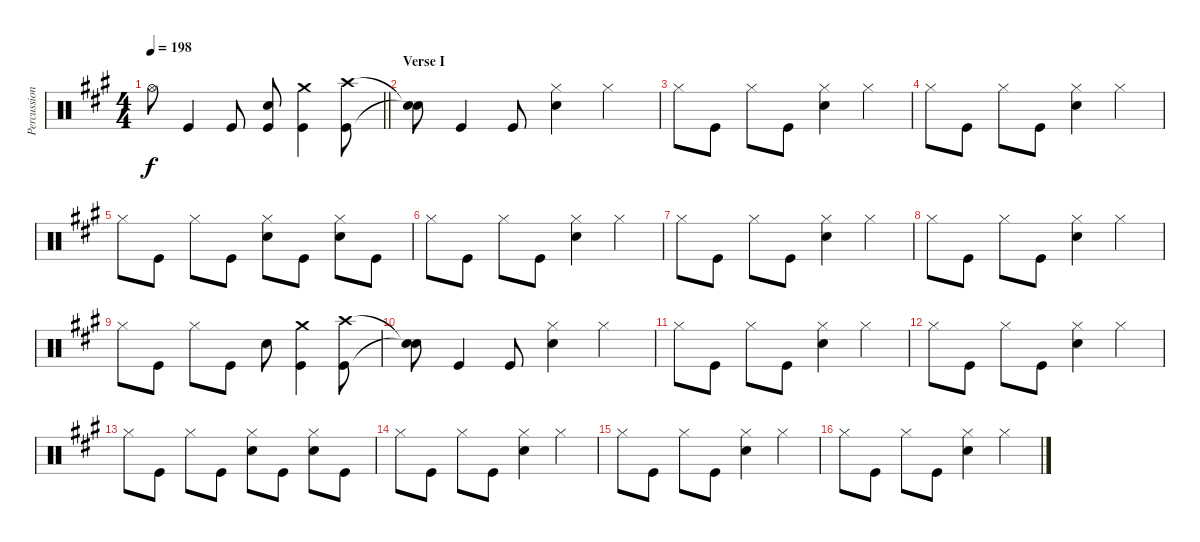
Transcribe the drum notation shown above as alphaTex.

\track ("Percussion" "Percussion") {instrument percussion}
\staff {score}
\articulation defaults
\ts (4 4)
\tempo 198
\clef neutral
\barLineRight lightlight
\ks a "Hi-Hat (open)".8{dy f} "Kick (hit)".4 "Kick (hit)".8
("Electric Snare (hit)" "Kick (hit)").8 ("Crash medium (hit)" "Kick (hit)").4 ("Crash high (hit)" "Kick (hit)").8 |
\section ("" "Verse I")
("Snare (hit)"{t} "Snare (hit)"{t}).8 "Kick (hit)".4 "Kick (hit)".8 ("Hi-Hat (closed)" "Electric Snare (hit)").4 "Hi-Hat (closed)".4 |
"Hi-Hat (closed)".8 "Kick (hit)".8 "Hi-Hat (closed)".8 "Kick (hit)".8 ("Hi-Hat (closed)" "Electric Snare (hit)").4 "Hi-Hat (closed)".4 |
"Hi-Hat (closed)".8 "Kick (hit)".8 "Hi-Hat (closed)".8 "Kick (hit)".8 ("Hi-Hat (closed)" "Electric Snare (hit)").4 "Hi-Hat (closed)".4 |
"Hi-Hat (closed)".8 "Kick (hit)".8 "Hi-Hat (closed)".8 "Kick (hit)".8 ("Hi-Hat (closed)" "Electric Snare (hit)").8 "Kick (hit)".8 ("Hi-Hat (closed)" "Electric Snare (hit)").8 "Kick (hit)".8 |
"Hi-Hat (closed)".8 "Kick (hit)".8 "Hi-Hat (closed)".8 "Kick (hit)".8 ("Hi-Hat (closed)" "Electric Snare (hit)").4 "Hi-Hat (closed)".4 |
"Hi-Hat (closed)".8 "Kick (hit)".8 "Hi-Hat (closed)".8 "Kick (hit)".8 ("Hi-Hat (closed)" "Electric Snare (hit)").4 "Hi-Hat (closed)".4 |
"Hi-Hat (closed)".8 "Kick (hit)".8 "Hi-Hat (closed)".8 "Kick (hit)".8 ("Hi-Hat (closed)" "Electric Snare (hit)").4 "Hi-Hat (closed)".4 |
"Hi-Hat (closed)".8 "Kick (hit)".8 "Hi-Hat (closed)".8 "Kick (hit)".8 "Electric Snare (hit)".8 ("Crash medium (hit)" "Kick (hit)").4 ("Crash high (hit)" "Kick (hit)").8 |
("Snare (hit)"{t} "Snare (hit)"{t}).8 "Kick (hit)".4 "Kick (hit)".8 ("Hi-Hat (closed)" "Electric Snare (hit)").4 "Hi-Hat (closed)".4 |
"Hi-Hat (closed)".8 "Kick (hit)".8 "Hi-Hat (closed)".8 "Kick (hit)".8 ("Hi-Hat (closed)" "Electric Snare (hit)").4 "Hi-Hat (closed)".4 |
"Hi-Hat (closed)".8 "Kick (hit)".8 "Hi-Hat (closed)".8 "Kick (hit)".8 ("Hi-Hat (closed)" "Electric Snare (hit)").4 "Hi-Hat (closed)".4 |
"Hi-Hat (closed)".8 "Kick (hit)".8 "Hi-Hat (closed)".8 "Kick (hit)".8 ("Hi-Hat (closed)" "Electric Snare (hit)").8 "Kick (hit)".8 ("Hi-Hat (closed)" "Electric Snare (hit)").8 "Kick (hit)".8 |
"Hi-Hat (closed)".8 "Kick (hit)".8 "Hi-Hat (closed)".8 "Kick (hit)".8 ("Hi-Hat (closed)" "Electric Snare (hit)").4 "Hi-Hat (closed)".4 |
"Hi-Hat (closed)".8 "Kick (hit)".8 "Hi-Hat (closed)".8 "Kick (hit)".8 ("Hi-Hat (closed)" "Electric Snare (hit)").4 "Hi-Hat (closed)".4 |
"Hi-Hat (closed)".8 "Kick (hit)".8 "Hi-Hat (closed)".8 "Kick (hit)".8 ("Hi-Hat (closed)" "Electric Snare (hit)").4 "Hi-Hat (closed)".4
